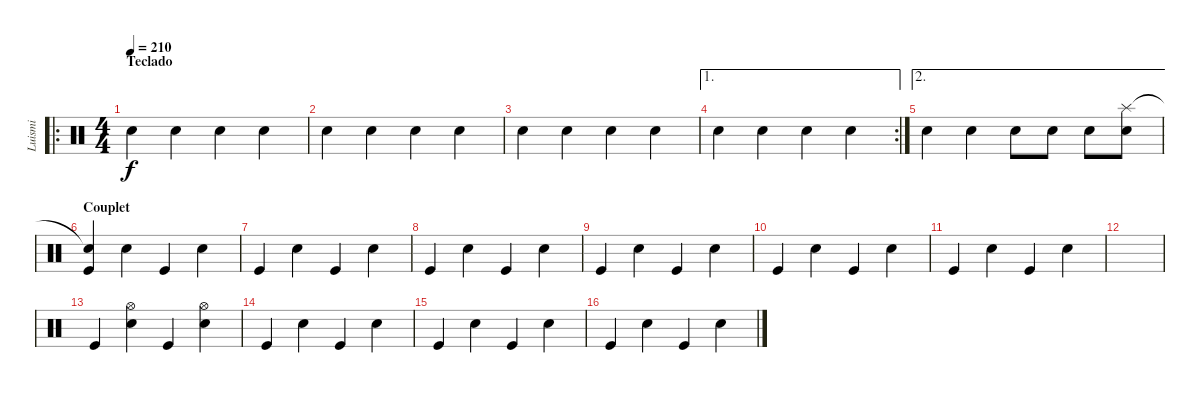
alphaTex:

\track ("Luismi" "Luismi") {instrument percussion}
\staff {score}
\articulation defaults
\ro
\ts (4 4)
\section ("" "Teclado")
\tempo 210
\clef neutral
\ks c "Snare (hit) 2".4{dy f} "Electric Snare (hit)".4 "Snare (hit) 2".4 "Electric Snare (hit)".4
|
"Snare (hit) 2".4 "Electric Snare (hit)".4 "Snare (hit) 2".4 "Electric Snare (hit)".4 |
"Snare (hit) 2".4 "Electric Snare (hit)".4 "Snare (hit) 2".4 "Electric Snare (hit)".4 |
\ae 1
\rc 2 "Snare (hit) 2".4 "Electric Snare (hit)".4 "Snare (hit) 2".4 "Electric Snare (hit)".4
|
\ae 2 "Electric Snare (hit)".4 "Electric Snare (hit)".4 "Electric Snare (hit)".8 "Snare (hit) 2".8 "Electric Snare (hit)".8
("Snare (hit) 2" "Splash (hit)").8 |
\section ("" "Couplet")
("Kick (hit)" "Snare (hit)"{t}).4 "Electric Snare (hit)".4 "Kick (hit)".4 "Electric Snare (hit)".4 |
"Kick (hit)".4 "Electric Snare (hit)".4 "Kick (hit)".4 "Electric Snare (hit)".4 |
"Kick (hit)".4 "Electric Snare (hit)".4 "Kick (hit)".4 "Electric Snare (hit)".4 |
"Kick (hit)".4 "Electric Snare (hit)".4 "Kick (hit)".4 "Electric Snare (hit)".4 |
"Kick (hit)".4 "Electric Snare (hit)".4 "Kick (hit)".4 "Electric Snare (hit)".4 |
"Kick (hit)".4 "Electric Snare (hit)".4 "Kick (hit)".4 "Electric Snare (hit)".4 |
|
"Kick (hit)".4 ("Electric Snare (hit)" "Hi-Hat (open)").4 "Kick (hit)".4 ("Electric Snare (hit)" "Hi-Hat (open)").4 |
"Kick (hit)".4 "Electric Snare (hit)".4 "Kick (hit)".4 "Electric Snare (hit)".4 |
"Kick (hit)".4 "Electric Snare (hit)".4 "Kick (hit)".4 "Electric Snare (hit)".4 |
"Kick (hit)".4 "Electric Snare (hit)".4 "Kick (hit)".4 "Electric Snare (hit)".4
